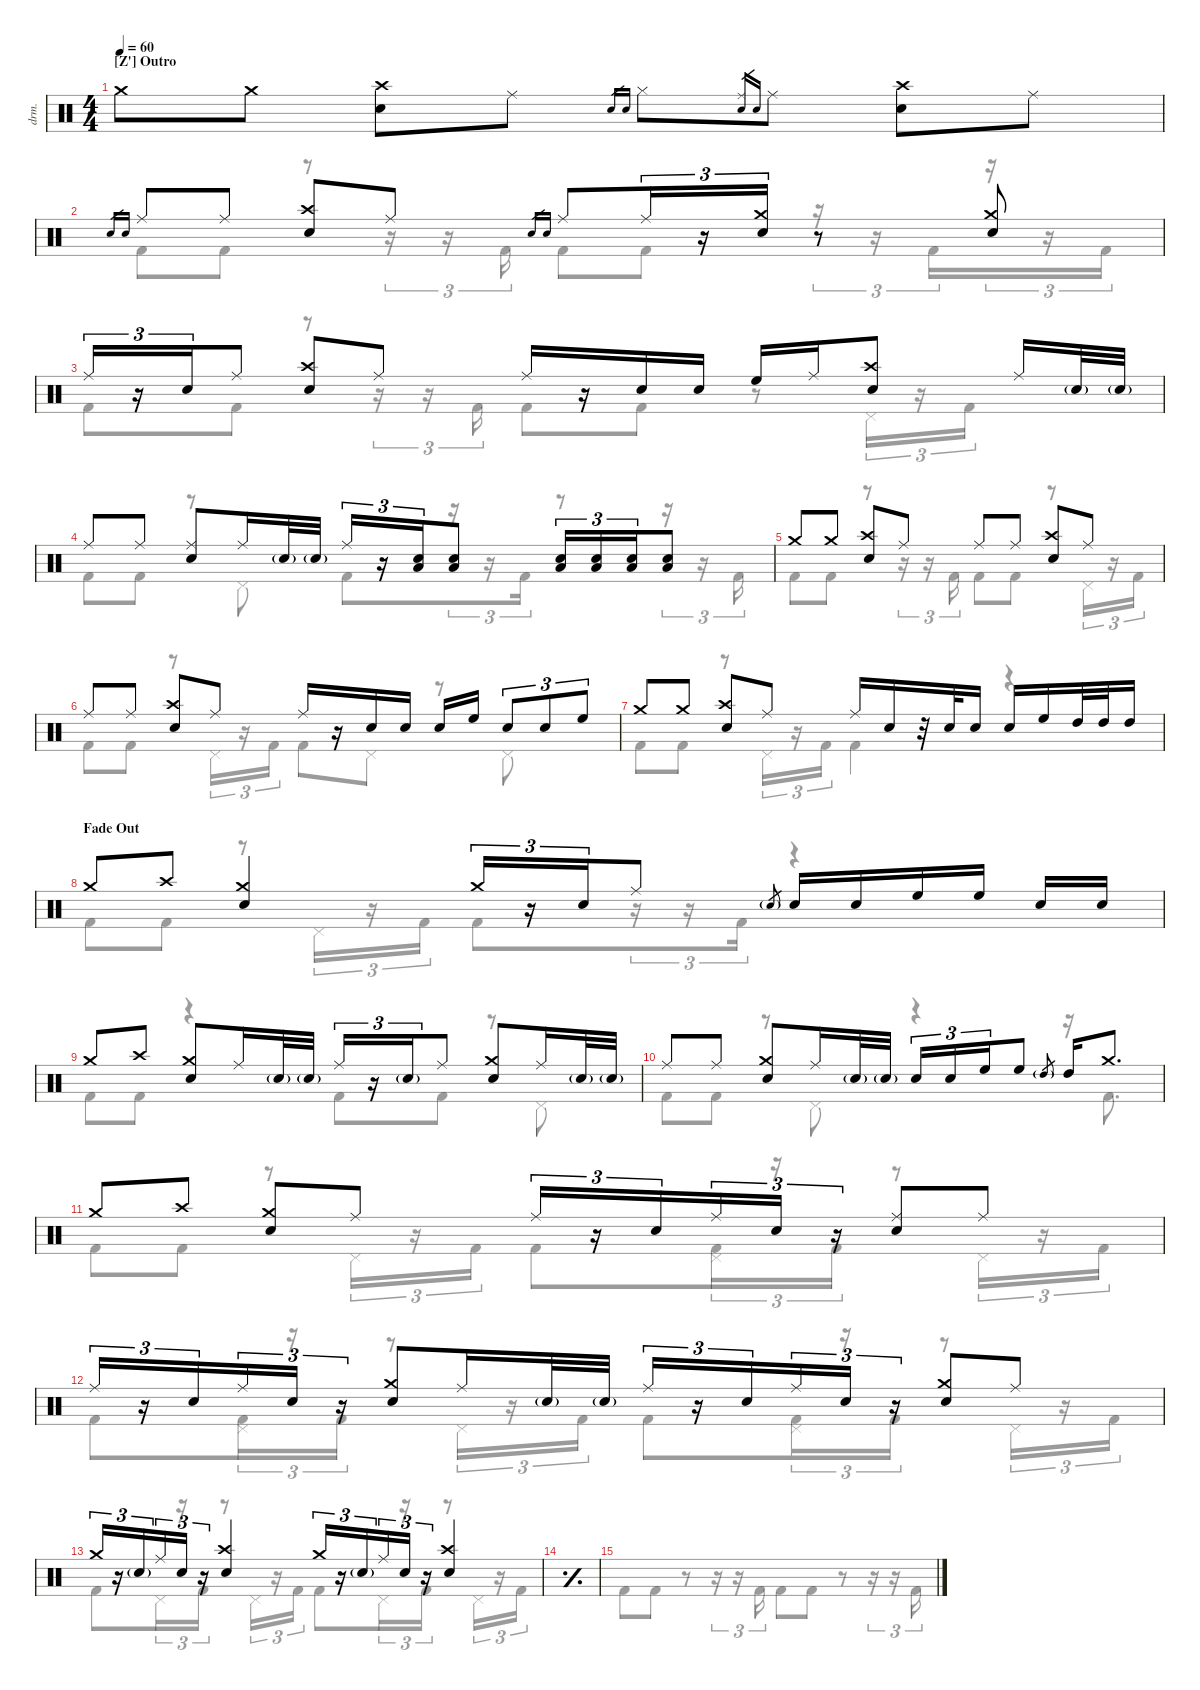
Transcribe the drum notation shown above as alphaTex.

\defaultSystemsLayout 4
\hideDynamics
\bracketExtendMode nobrackets
\track ("Drums" "drm.") {instrument percussion}
\staff {score}
\articulation defaults
\voice
\ts (4 4)
\section ("Z'" "Outro")
\tempo 60
\clef neutral
\ks c "Crash medium (hit)".8{dy mf} "Crash medium (hit)".8
("Crash high (hit)" "Snare (hit) 2").8 "Ride (middle)".8 "Snare (hit) 2".16{gr} "Snare (hit) 2".16{gr} "Hi-Hat (closed)".8 ("Snare (hit) 2" "Ride (middle)").16{gr} "Snare (hit) 2".16{gr} "Ride (middle)".8 ("Crash high (hit)" "Snare (hit) 2").8 "Ride (middle)".8 |
"Snare (hit) 2".16{gr} "Snare (hit) 2".16{gr} "Ride (middle)".8 "Ride (middle)".8 ("Crash high (hit)" "Snare (hit) 2").8 "Ride (middle)".8 "Snare (hit) 2".16{gr} "Snare (hit) 2".16{gr} "Ride (middle)".8{beam merge} "Ride (middle)".16{tu (3 2)} r.16{tu (3 2)} ("Crash medium (hit)" "Snare (hit) 2").16{tu (3 2)} r.8 ("Crash medium (hit)" "Snare (hit) 2").8 |
\scale
0.509935 "Ride (middle)".16{tu (3 2)} r.16{tu (3 2)} "Snare (hit) 2".16{tu (3 2) beam merge} "Ride (middle)".8 ("Crash high (hit)" "Snare (hit) 2").8 "Ride (middle)".8 "Ride (middle)".16 r.16 "Snare (hit) 2".16 "Snare (hit) 2".16 "High Floor Tom (hit)".16 "Ride (middle)".16 ("Crash high (hit)" "Snare (hit) 2").8 "Ride (middle)".16 "Snare (hit) 2"{g}.32 "Snare (hit) 2"{g}.32 |
\scale
0.490065 "Ride (middle)".8 "Ride (middle)".8 ("Ride (middle)" "Snare (hit) 2").8 "Ride (middle)".16 "Snare (hit) 2"{g}.32 "Snare (hit) 2"{g}.32 "Ride (middle)".16{tu (3 2)} r.16{tu (3 2)} ("Snare (hit) 2" "Low Tom (hit)").16{tu (3 2) beam merge} ("Snare (hit) 2" "Low Tom (hit)").8 ("Low Tom (hit)" "Snare (hit) 2").16{tu (3 2)} ("Low Tom (hit)" "Snare (hit) 2").16{tu (3 2)} ("Low Tom (hit)" "Snare (hit) 2").16{tu (3 2) beam merge} ("Low Tom (hit)" "Snare (hit) 2").8 |
\scale
0.509936 "Crash medium (hit)".8 "Crash medium (hit)".8 ("Crash high (hit)" "Snare (hit) 2").8 "Ride (middle)".8 "Ride (middle)".8 "Ride (middle)".8 ("Crash high (hit)" "Snare (hit) 2").8 "Ride (middle)".8 |
\scale
0.490064 "Ride (middle)".8 "Ride (middle)".8 ("Snare (hit) 2" "Crash high (hit)").8 "Ride (middle)".8 "Ride (middle)".16 r.16 "Snare (hit) 2".16 "Snare (hit) 2".16 "Snare (hit) 2".16 "High Floor Tom (hit)".16{beam split} "Snare (hit) 2".8{tu (3 2)} "Snare (hit) 2".8{tu (3 2)} "High Floor Tom (hit)".8{tu (3 2)} |
\scale
0.509936 "Crash medium (hit)".8 "Crash medium (hit)".8 ("Crash high (hit)" "Snare (hit) 2").8 "Ride (middle)".8 "Ride (middle)".16 "Snare (hit) 2".16 r.32 "Snare (hit) 2".32 "Snare (hit) 2".16 "Snare (hit) 2".16 "High Floor Tom (hit)".16 "High Tom (hit)".32 "High Tom (hit)".32 "High Tom (hit)".16 |
\section ("" "Fade Out")
\scale
0.490064 "Crash medium (hit)".8 "Crash high (hit)".8 ("Crash medium (hit)" "Snare (hit) 2").4 "Crash medium (hit)".16{tu (3 2)} r.16{tu (3 2)} "Snare (hit) 2".16{tu (3 2) beam merge} "Ride (middle)".8 "Snare (hit) 2"{g}.8{gr} "Snare (hit) 2".16 "Snare (hit) 2".16 "High Floor Tom (hit)".16 "High Floor Tom (hit)".16 "Snare (hit) 2".16 "Snare (hit) 2".16 |
"Crash medium (hit)".8 "Crash high (hit)".8 ("Crash medium (hit)" "Snare (hit) 2").8 "Ride (middle)".16 "Snare (hit) 2"{g}.32 "Snare (hit) 2"{g}.32 "Ride (middle)".16{tu (3 2)} r.16{tu (3 2)} "Snare (hit) 2"{g}.16{tu (3 2) beam merge} "Ride (middle)".8 ("Crash medium (hit)" "Snare (hit) 2").8 "Ride (middle)".16 "Snare (hit) 2"{g}.32 "Snare (hit) 2"{g}.32 |
"Ride (middle)".8 "Ride (middle)".8 ("Crash medium (hit)" "Snare (hit) 2").8 "Ride (middle)".16 "Snare (hit) 2"{g}.32 "Snare (hit) 2"{g}.32 "Snare (hit) 2".16{tu (3 2)} "Snare (hit) 2".16{tu (3 2)} "High Floor Tom (hit)".16{tu (3 2) beam merge} "High Floor Tom (hit)".8 "High Tom (hit)"{g}.8{gr} "High Tom (hit)".16 "Crash medium (hit)".8{d} |
\scale
0.509935 "Crash medium (hit)".8 "Crash high (hit)".8 ("Crash medium (hit)" "Snare (hit) 2").8 "Ride (middle)".8 "Ride (middle)".16{tu (3 2)} r.16{tu (3 2)} "Snare (hit) 2".16{tu (3 2) beam merge} "Ride (middle)".16{tu (3 2)} "Snare (hit) 2".16{tu (3 2)} r.16{tu (3 2)} ("Snare (hit) 2" "Ride (middle)").8 "Ride (middle)".8 |
\scale
0.490065 "Ride (middle)".16{tu (3 2)} r.16{tu (3 2)} "Snare (hit) 2".16{tu (3 2) beam merge} "Ride (middle)".16{tu (3 2)} "Snare (hit) 2".16{tu (3 2)} r.16{tu (3 2)} ("Crash medium (hit)" "Snare (hit) 2").8 "Ride (middle)".16 "Snare (hit) 2"{g}.32 "Snare (hit) 2"{g}.32 "Ride (middle)".16{tu (3 2)} r.16{tu (3 2)} "Snare (hit) 2".16{tu (3 2) beam merge} "Ride (middle)".16{tu (3 2)} "Snare (hit) 2".16{tu (3 2)} r.16{tu (3 2)} ("Crash medium (hit)" "Snare (hit) 2").8 "Ride (middle)".8 |
\scale
0.380519 "Crash medium (hit)".16{tu (3 2)} r.16{tu (3 2)} "Snare (hit) 2"{g}.16{tu (3 2) beam merge} "Ride (middle)".16{tu (3 2)} "Snare (hit) 2".16{tu (3 2)} r.16{tu (3 2)} ("Snare (hit) 2" "Crash high (hit)").4 "Crash medium (hit)".16{tu (3 2)} r.16{tu (3 2)} "Snare (hit) 2"{g}.16{tu (3 2) beam merge} "Ride (middle)".16{tu (3 2)} "Snare (hit) 2".16{tu (3 2)} r.16{tu (3 2)} ("Snare (hit) 2" "Crash high (hit)").4 |
\simile simple
\scale
0.30974 |
\scale
0.309741
\voice
\clef neutral
\ottava regular
\simile none
\ks c "Kick (hit) 2".8{dy mf} "Kick (hit) 2".8
r.8 r.16{tu (3 2)} r.16{tu (3 2)} "Kick (hit) 2".16{tu (3 2)} "Kick (hit) 2".8 "Kick (hit) 2".8 r.8 r.16{tu (3 2)} r.16{tu (3 2)} "Kick (hit) 2".16{tu (3 2)} |
"Kick (hit) 2".8 "Kick (hit) 2".8 r.8 r.16{tu (3 2)} r.16{tu (3 2)} "Kick (hit) 2".16{tu (3 2)} "Kick (hit) 2".8 "Kick (hit) 2".8 r.16{tu (3 2)} r.16{tu (3 2)} "Kick (hit) 2".16{tu (3 2) beam merge} r.16{tu (3 2) beam merge} r.16{tu (3 2) beam merge} "Kick (hit) 2".16{tu (3 2)} |
\scale
0.509935 "Kick (hit) 2".8 "Kick (hit) 2".8 r.8 r.16{tu (3 2)} r.16{tu (3 2)} "Kick (hit) 2".16{tu (3 2)} "Kick (hit) 2".8 "Kick (hit) 2".8 r.8 "Pedal Hi-Hat (hit)".16{tu (3 2)} r.16{tu (3 2)} "Kick (hit) 2".16{tu (3 2)} |
\scale
0.490065 "Kick (hit) 2".8 "Kick (hit) 2".8 r.8 "Pedal Hi-Hat (hit)".8 "Kick (hit) 2".8{beam merge} r.16{tu (3 2) beam merge} r.16{tu (3 2) beam merge} "Kick (hit) 2".16{tu (3 2)} r.8 r.16{tu (3 2)} r.16{tu (3 2)} "Kick (hit) 2".16{tu (3 2)} |
\scale
0.509936 "Kick (hit) 2".8 "Kick (hit) 2".8 r.8 r.16{tu (3 2)} r.16{tu (3 2)} "Kick (hit) 2".16{tu (3 2)} "Kick (hit) 2".8 "Kick (hit) 2".8 r.8 "Pedal Hi-Hat (hit)".16{tu (3 2)} r.16{tu (3 2)} "Kick (hit) 2".16{tu (3 2)} |
\scale
0.490064 "Kick (hit) 2".8 "Kick (hit) 2".8 r.8 "Pedal Hi-Hat (hit)".16{tu (3 2)} r.16{tu (3 2)} "Kick (hit) 2".16{tu (3 2)} "Kick (hit) 2".8 "Pedal Hi-Hat (hit)".8 r.8 "Pedal Hi-Hat (hit)".8 |
\scale
0.509936 "Kick (hit) 2".8 "Kick (hit) 2".8 r.8 "Pedal Hi-Hat (hit)".16{tu (3 2)} r.16{tu (3 2)} "Kick (hit) 2".16{tu (3 2)} "Kick (hit) 2".4 r.4 |
\scale
0.490064 "Kick (hit) 2".8 "Kick (hit) 2".8 r.8 "Pedal Hi-Hat (hit)".16{tu (3 2)} r.16{tu (3 2)} "Kick (hit) 2".16{tu (3 2)} "Kick (hit) 2".8{beam merge} r.16{tu (3 2) beam merge} r.16{tu (3 2) beam merge} "Kick (hit) 2".16{tu (3 2)} r.4 |
"Kick (hit) 2".8 "Kick (hit) 2".8 r.4 "Kick (hit) 2".8 "Kick (hit) 2".8 r.8 "Pedal Hi-Hat (hit)".8 |
"Kick (hit) 2".8 "Kick (hit) 2".8 r.8 "Pedal Hi-Hat (hit)".8 r.4 r.16 "Kick (hit) 2".8{d} |
\scale
0.509935 "Kick (hit) 2".8 "Kick (hit) 2".8 r.8 "Pedal Hi-Hat (hit)".16{tu (3 2)} r.16{tu (3 2)} "Kick (hit) 2".16{tu (3 2)} "Kick (hit) 2".8{beam merge} ("Kick (hit) 2" "Pedal Hi-Hat (hit)").16{tu (3 2)} r.16{tu (3 2)} "Kick (hit) 2".16{tu (3 2)} r.8 "Pedal Hi-Hat (hit)".16{tu (3 2)} r.16{tu (3 2)} "Kick (hit) 2".16{tu (3 2)} |
\scale
0.490065 "Kick (hit) 2".8{beam merge} ("Kick (hit) 2" "Pedal Hi-Hat (hit)").16{tu (3 2)} r.16{tu (3 2)} "Kick (hit) 2".16{tu (3 2)} r.8{beam merge} "Pedal Hi-Hat (hit)".16{tu (3 2)} r.16{tu (3 2)} "Kick (hit) 2".16{tu (3 2)} "Kick (hit) 2".8{beam merge} ("Kick (hit) 2" "Pedal Hi-Hat (hit)").16{tu (3 2)} r.16{tu (3 2)} "Kick (hit) 2".16{tu (3 2)} r.8{beam merge} "Pedal Hi-Hat (hit)".16{tu (3 2)} r.16{tu (3 2)} "Kick (hit) 2".16{tu (3 2)} |
\scale
0.380519 "Kick (hit) 2".8{beam merge} "Pedal Hi-Hat (hit)".16{tu (3 2)} r.16{tu (3 2)} "Kick (hit) 2".16{tu (3 2)} r.8 "Pedal Hi-Hat (hit)".16{tu (3 2)} r.16{tu (3 2)} "Kick (hit) 2".16{tu (3 2)} "Kick (hit) 2".8{beam merge} "Pedal Hi-Hat (hit)".16{tu (3 2)} r.16{tu (3 2)} "Kick (hit) 2".16{tu (3 2)} r.8 "Pedal Hi-Hat (hit)".16{tu (3 2)} r.16{tu (3 2)} "Kick (hit) 2".16{tu (3 2)} |
\simile simple
\scale
0.30974 |
\scale
0.309741
